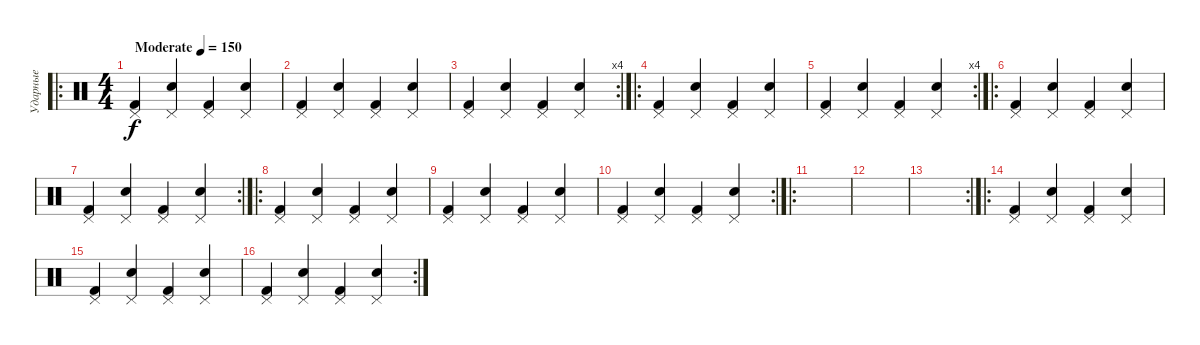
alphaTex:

\track ("Ударные" "Ударные") {instrument percussion}
\staff {score}
\articulation defaults
\ro
\ts (4 4)
\tempo (150 "Moderate")
\clef neutral
\ks c
("Pedal Hi-Hat (hit)" "Kick (hit) 2").4{dy f} ("Pedal Hi-Hat (hit)" "Snare (hit) 2").4 ("Pedal Hi-Hat (hit)" "Kick (hit) 2").4 ("Pedal Hi-Hat (hit)" "Snare (hit) 2").4 |
("Pedal Hi-Hat (hit)" "Kick (hit) 2").4 ("Pedal Hi-Hat (hit)" "Snare (hit) 2").4 ("Pedal Hi-Hat (hit)" "Kick (hit) 2").4 ("Pedal Hi-Hat (hit)" "Snare (hit) 2").4 |
\rc 4
("Pedal Hi-Hat (hit)" "Kick (hit) 2").4 ("Pedal Hi-Hat (hit)" "Snare (hit) 2").4 ("Pedal Hi-Hat (hit)" "Kick (hit) 2").4 ("Pedal Hi-Hat (hit)" "Snare (hit) 2").4 |
\ro
("Pedal Hi-Hat (hit)" "Kick (hit) 2").4 ("Pedal Hi-Hat (hit)" "Snare (hit) 2").4 ("Pedal Hi-Hat (hit)" "Kick (hit) 2").4 ("Pedal Hi-Hat (hit)" "Snare (hit) 2").4 |
\rc 4
("Pedal Hi-Hat (hit)" "Kick (hit) 2").4 ("Pedal Hi-Hat (hit)" "Snare (hit) 2").4 ("Pedal Hi-Hat (hit)" "Kick (hit) 2").4 ("Pedal Hi-Hat (hit)" "Snare (hit) 2").4 |
\ro
("Pedal Hi-Hat (hit)" "Kick (hit) 2").4 ("Pedal Hi-Hat (hit)" "Snare (hit) 2").4 ("Pedal Hi-Hat (hit)" "Kick (hit) 2").4 ("Pedal Hi-Hat (hit)" "Snare (hit) 2").4 |
\rc 2
("Pedal Hi-Hat (hit)" "Kick (hit) 2").4 ("Pedal Hi-Hat (hit)" "Snare (hit) 2").4 ("Pedal Hi-Hat (hit)" "Kick (hit) 2").4 ("Pedal Hi-Hat (hit)" "Snare (hit) 2").4 |
\ro
("Pedal Hi-Hat (hit)" "Kick (hit) 2").4 ("Pedal Hi-Hat (hit)" "Snare (hit) 2").4 ("Pedal Hi-Hat (hit)" "Kick (hit) 2").4 ("Pedal Hi-Hat (hit)" "Snare (hit) 2").4 |
("Pedal Hi-Hat (hit)" "Kick (hit) 2").4 ("Pedal Hi-Hat (hit)" "Snare (hit) 2").4 ("Pedal Hi-Hat (hit)" "Kick (hit) 2").4 ("Pedal Hi-Hat (hit)" "Snare (hit) 2").4 |
\rc 2
("Pedal Hi-Hat (hit)" "Kick (hit) 2").4 ("Pedal Hi-Hat (hit)" "Snare (hit) 2").4 ("Pedal Hi-Hat (hit)" "Kick (hit) 2").4 ("Pedal Hi-Hat (hit)" "Snare (hit) 2").4 |
\ro
|
|
\rc 2
|
\ro
("Pedal Hi-Hat (hit)" "Kick (hit) 2").4 ("Pedal Hi-Hat (hit)" "Snare (hit) 2").4 ("Pedal Hi-Hat (hit)" "Kick (hit) 2").4 ("Pedal Hi-Hat (hit)" "Snare (hit) 2").4 |
("Pedal Hi-Hat (hit)" "Kick (hit) 2").4 ("Pedal Hi-Hat (hit)" "Snare (hit) 2").4 ("Pedal Hi-Hat (hit)" "Kick (hit) 2").4 ("Pedal Hi-Hat (hit)" "Snare (hit) 2").4 |
\rc 2
("Pedal Hi-Hat (hit)" "Kick (hit) 2").4 ("Pedal Hi-Hat (hit)" "Snare (hit) 2").4 ("Pedal Hi-Hat (hit)" "Kick (hit) 2").4 ("Pedal Hi-Hat (hit)" "Snare (hit) 2").4
